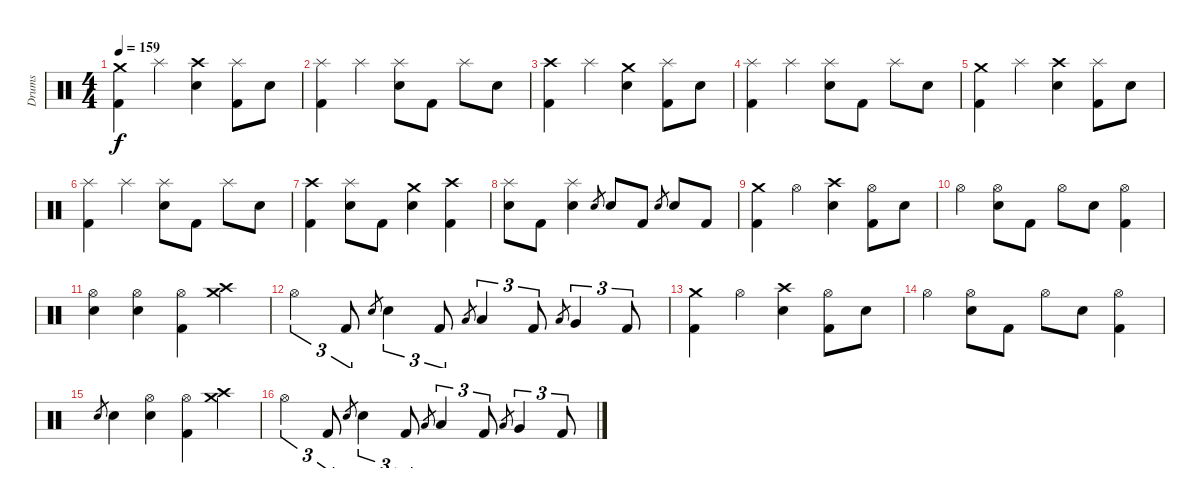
\track ("Drums" "Drums") {instrument percussion}
\staff {score}
\articulation defaults
\ts (4 4)
\tempo 159
\clef neutral
\ks c
("Crash medium (hit)" "Kick (hit) 2").4{dy f} "Splash (hit)".4 ("Crash high (hit)" "Snare (hit) 2").4 ("Splash (hit)" "Kick (hit) 2").8 "Snare (hit) 2".8 |
("Splash (hit)" "Kick (hit) 2").4 "Splash (hit)".4 ("Splash (hit)" "Snare (hit) 2").8 "Kick (hit) 2".8 "Splash (hit)".8 "Snare (hit) 2".8 |
("Crash high (hit)" "Kick (hit) 2").4 "Splash (hit)".4 ("Crash medium (hit)" "Snare (hit) 2").4 ("Splash (hit)" "Kick (hit) 2").8 "Snare (hit) 2".8 |
("Splash (hit)" "Kick (hit) 2").4 "Splash (hit)".4 ("Splash (hit)" "Snare (hit) 2").8 "Kick (hit) 2".8 "Splash (hit)".8 "Snare (hit) 2".8 |
("Crash medium (hit)" "Kick (hit) 2").4 "Splash (hit)".4 ("Crash high (hit)" "Snare (hit) 2").4 ("Splash (hit)" "Kick (hit) 2").8 "Snare (hit) 2".8 |
("Splash (hit)" "Kick (hit) 2").4 "Splash (hit)".4 ("Splash (hit)" "Snare (hit) 2").8 "Kick (hit) 2".8 "Splash (hit)".8 "Snare (hit) 2".8 |
("Crash high (hit)" "Kick (hit) 2").4 ("Splash (hit)" "Snare (hit) 2").8 "Kick (hit) 2".8 ("Crash medium (hit)" "Snare (hit) 2").4 ("Crash high (hit)" "Kick (hit) 2").4 |
("Splash (hit)" "Snare (hit) 2").8 "Kick (hit) 2".8 ("Splash (hit)" "Snare (hit) 2").4 "Snare (hit) 2".8{gr} "Snare (hit) 2".8 "Kick (hit) 2".8 "Snare (hit) 2".8{gr} "Snare (hit) 2".8 "Kick (hit) 2".8 |
("Crash medium (hit)" "Kick (hit) 2").4 "Hi-Hat (open)".4 ("Crash high (hit)" "Snare (hit) 2").4 ("Hi-Hat (open)" "Kick (hit) 2").8 "Snare (hit) 2".8 |
"Hi-Hat (open)".4 ("Hi-Hat (open)" "Snare (hit) 2").8 "Kick (hit) 2".8 "Hi-Hat (open)".8 "Snare (hit) 2".8 ("Hi-Hat (open)" "Kick (hit) 2").4 |
("Hi-Hat (open)" "Snare (hit) 2").4 ("Hi-Hat (open)" "Snare (hit) 2").4 ("Hi-Hat (open)" "Kick (hit) 2").4 ("Crash high (hit)" "Crash medium (hit)").4 |
"Hi-Hat (open)".4{tu (3 2)} "Kick (hit) 2".8{tu (3 2)} "Snare (hit) 2".8{gr} "Snare (hit) 2".4{tu (3 2)} "Kick (hit) 2".8{tu (3 2)} "Low Tom (hit)".8{gr} "Low Tom (hit)".4{tu (3 2)} "Kick (hit) 2".8{tu (3 2)} "Low Tom (hit)".8{gr} "Very Low Tom (hit)".4{tu (3 2)} "Kick (hit) 2".8{tu (3 2)} |
("Crash medium (hit)" "Kick (hit) 2").4 "Hi-Hat (open)".4 ("Crash high (hit)" "Snare (hit) 2").4 ("Hi-Hat (open)" "Kick (hit) 2").8 "Snare (hit) 2".8 |
"Hi-Hat (open)".4 ("Hi-Hat (open)" "Snare (hit) 2").8 "Kick (hit) 2".8 "Hi-Hat (open)".8 "Snare (hit) 2".8 ("Hi-Hat (open)" "Kick (hit) 2").4 |
"Snare (hit) 2".8{gr} "Snare (hit) 2".4 ("Hi-Hat (open)" "Snare (hit) 2").4 ("Hi-Hat (open)" "Kick (hit) 2").4 ("Crash high (hit)" "Crash medium (hit)").4 |
"Hi-Hat (open)".4{tu (3 2)} "Kick (hit) 2".8{tu (3 2)} "Snare (hit) 2".8{gr} "Snare (hit) 2".4{tu (3 2)} "Kick (hit) 2".8{tu (3 2)} "Low Tom (hit)".8{gr} "Low Tom (hit)".4{tu (3 2)} "Kick (hit) 2".8{tu (3 2)} "Low Tom (hit)".8{gr} "Very Low Tom (hit)".4{tu (3 2)} "Kick (hit) 2".8{tu (3 2)}
